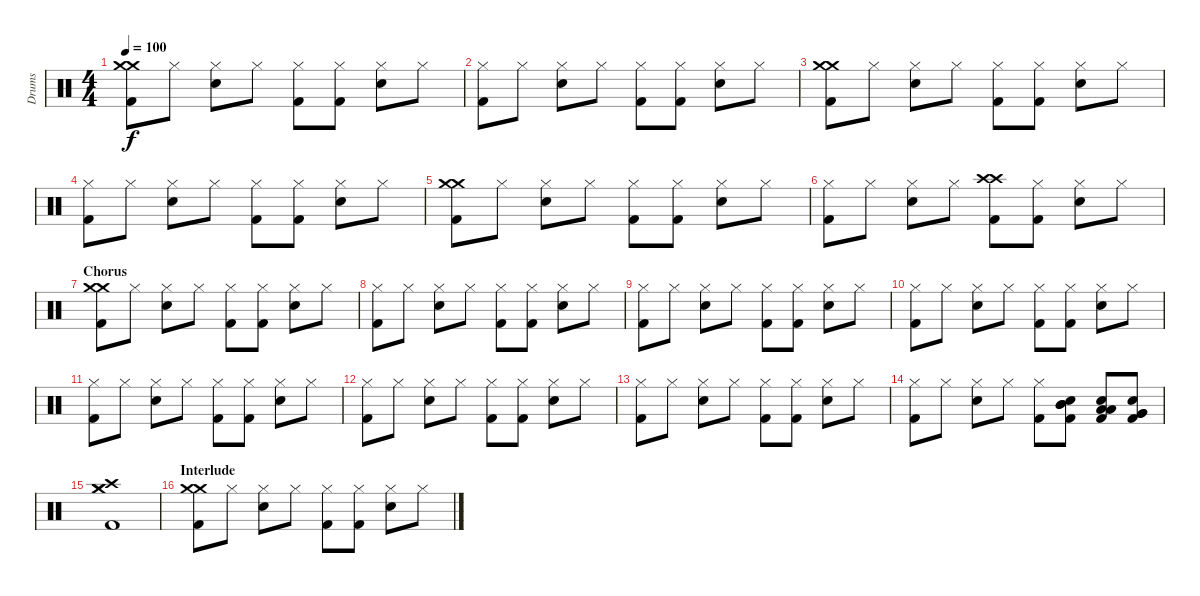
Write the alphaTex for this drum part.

\track ("Drums" "Drums") {instrument percussion}
\staff {score}
\articulation defaults
\ts (4 4)
\tempo 100
\clef neutral
\ks c
("Crash medium (hit)" "Crash medium (hit)" "Kick (hit) 2").8{dy f} "Hi-Hat (closed)".8 ("Hi-Hat (closed)" "Electric Snare (hit)").8 "Hi-Hat (closed)".8 ("Hi-Hat (closed)" "Kick (hit) 2").8 ("Hi-Hat (closed)" "Kick (hit) 2").8 ("Hi-Hat (closed)" "Electric Snare (hit)").8 "Hi-Hat (closed)".8 |
("Hi-Hat (closed)" "Kick (hit) 2").8 "Hi-Hat (closed)".8 ("Hi-Hat (closed)" "Electric Snare (hit)").8 "Hi-Hat (closed)".8 ("Hi-Hat (closed)" "Kick (hit) 2").8 ("Hi-Hat (closed)" "Kick (hit) 2").8 ("Hi-Hat (closed)" "Electric Snare (hit)").8 "Hi-Hat (closed)".8 |
("Crash medium (hit)" "Crash medium (hit)" "Kick (hit) 2").8 "Hi-Hat (closed)".8 ("Hi-Hat (closed)" "Electric Snare (hit)").8 "Hi-Hat (closed)".8 ("Hi-Hat (closed)" "Kick (hit) 2").8 ("Hi-Hat (closed)" "Kick (hit) 2").8 ("Hi-Hat (closed)" "Electric Snare (hit)").8 "Hi-Hat (closed)".8 |
("Hi-Hat (closed)" "Kick (hit) 2").8 "Hi-Hat (closed)".8 ("Hi-Hat (closed)" "Electric Snare (hit)").8 "Hi-Hat (closed)".8 ("Hi-Hat (closed)" "Kick (hit) 2").8 ("Hi-Hat (closed)" "Kick (hit) 2").8 ("Hi-Hat (closed)" "Electric Snare (hit)").8 "Hi-Hat (closed)".8 |
("Crash medium (hit)" "Crash medium (hit)" "Kick (hit) 2").8 "Hi-Hat (closed)".8 ("Hi-Hat (closed)" "Electric Snare (hit)").8 "Hi-Hat (closed)".8 ("Hi-Hat (closed)" "Kick (hit) 2").8 ("Hi-Hat (closed)" "Kick (hit) 2").8 ("Hi-Hat (closed)" "Electric Snare (hit)").8 "Hi-Hat (closed)".8 |
("Hi-Hat (closed)" "Kick (hit) 2").8 "Hi-Hat (closed)".8 ("Hi-Hat (closed)" "Electric Snare (hit)").8 "Hi-Hat (closed)".8 ("Crash high (hit)" "Crash high (hit)" "Kick (hit) 2").8 ("Hi-Hat (closed)" "Kick (hit) 2").8 ("Hi-Hat (closed)" "Electric Snare (hit)").8 "Hi-Hat (closed)".8 |
\section ("" "Chorus")
("Crash medium (hit)" "Crash medium (hit)" "Kick (hit) 2").8 "Hi-Hat (closed)".8 ("Hi-Hat (closed)" "Electric Snare (hit)").8 "Hi-Hat (closed)".8 ("Hi-Hat (closed)" "Kick (hit) 2").8 ("Hi-Hat (closed)" "Kick (hit) 2").8 ("Hi-Hat (closed)" "Electric Snare (hit)").8 "Hi-Hat (closed)".8 |
("Hi-Hat (closed)" "Kick (hit) 2").8 "Hi-Hat (closed)".8 ("Hi-Hat (closed)" "Electric Snare (hit)").8 "Hi-Hat (closed)".8 ("Hi-Hat (closed)" "Kick (hit) 2").8 ("Hi-Hat (closed)" "Kick (hit) 2").8 ("Hi-Hat (closed)" "Electric Snare (hit)").8 "Hi-Hat (closed)".8 |
("Hi-Hat (closed)" "Kick (hit) 2").8 "Hi-Hat (closed)".8 ("Hi-Hat (closed)" "Electric Snare (hit)").8 "Hi-Hat (closed)".8 ("Hi-Hat (closed)" "Kick (hit) 2").8 ("Hi-Hat (closed)" "Kick (hit) 2").8 ("Hi-Hat (closed)" "Electric Snare (hit)").8 "Hi-Hat (closed)".8 |
("Hi-Hat (closed)" "Kick (hit) 2").8 "Hi-Hat (closed)".8 ("Hi-Hat (closed)" "Electric Snare (hit)").8 "Hi-Hat (closed)".8 ("Hi-Hat (closed)" "Kick (hit) 2").8 ("Hi-Hat (closed)" "Kick (hit) 2").8 ("Hi-Hat (closed)" "Electric Snare (hit)").8 "Hi-Hat (closed)".8 |
("Hi-Hat (closed)" "Kick (hit) 2").8 "Hi-Hat (closed)".8 ("Hi-Hat (closed)" "Electric Snare (hit)").8 "Hi-Hat (closed)".8 ("Hi-Hat (closed)" "Kick (hit) 2").8 ("Hi-Hat (closed)" "Kick (hit) 2").8 ("Hi-Hat (closed)" "Electric Snare (hit)").8 "Hi-Hat (closed)".8 |
("Hi-Hat (closed)" "Kick (hit) 2").8 "Hi-Hat (closed)".8 ("Hi-Hat (closed)" "Electric Snare (hit)").8 "Hi-Hat (closed)".8 ("Hi-Hat (closed)" "Kick (hit) 2").8 ("Hi-Hat (closed)" "Kick (hit) 2").8 ("Hi-Hat (closed)" "Electric Snare (hit)").8 "Hi-Hat (closed)".8 |
("Hi-Hat (closed)" "Kick (hit) 2").8 "Hi-Hat (closed)".8 ("Hi-Hat (closed)" "Electric Snare (hit)").8 "Hi-Hat (closed)".8 ("Hi-Hat (closed)" "Kick (hit) 2").8 ("Hi-Hat (closed)" "Kick (hit) 2").8 ("Hi-Hat (closed)" "Electric Snare (hit)").8 "Hi-Hat (closed)".8 |
("Hi-Hat (closed)" "Kick (hit) 2").8 "Hi-Hat (closed)".8 ("Hi-Hat (closed)" "Electric Snare (hit)").8 "Hi-Hat (closed)".8 ("Hi-Hat (closed)" "Kick (hit) 2").8 ("Mid Tom (hit)" "Mid Tom (hit)" "Electric Snare (hit)" "Kick (hit) 2").8 ("Low Tom (hit)" "Low Tom (hit)" "Electric Snare (hit)" "Kick (hit) 2").8 ("Electric Snare (hit)" "Very Low Tom (hit)" "Very Low Tom (hit)" "Kick (hit) 2").8 |
("Crash high (hit)" "Crash medium (hit)" "Crash medium (hit)" "Kick (hit) 2").1 |
\section ("" "Interlude")
("Crash medium (hit)" "Crash medium (hit)" "Kick (hit) 2").8 "Hi-Hat (closed)".8 ("Hi-Hat (closed)" "Electric Snare (hit)").8 "Hi-Hat (closed)".8 ("Hi-Hat (closed)" "Kick (hit) 2").8 ("Hi-Hat (closed)" "Kick (hit) 2").8 ("Hi-Hat (closed)" "Electric Snare (hit)").8 "Hi-Hat (closed)".8
